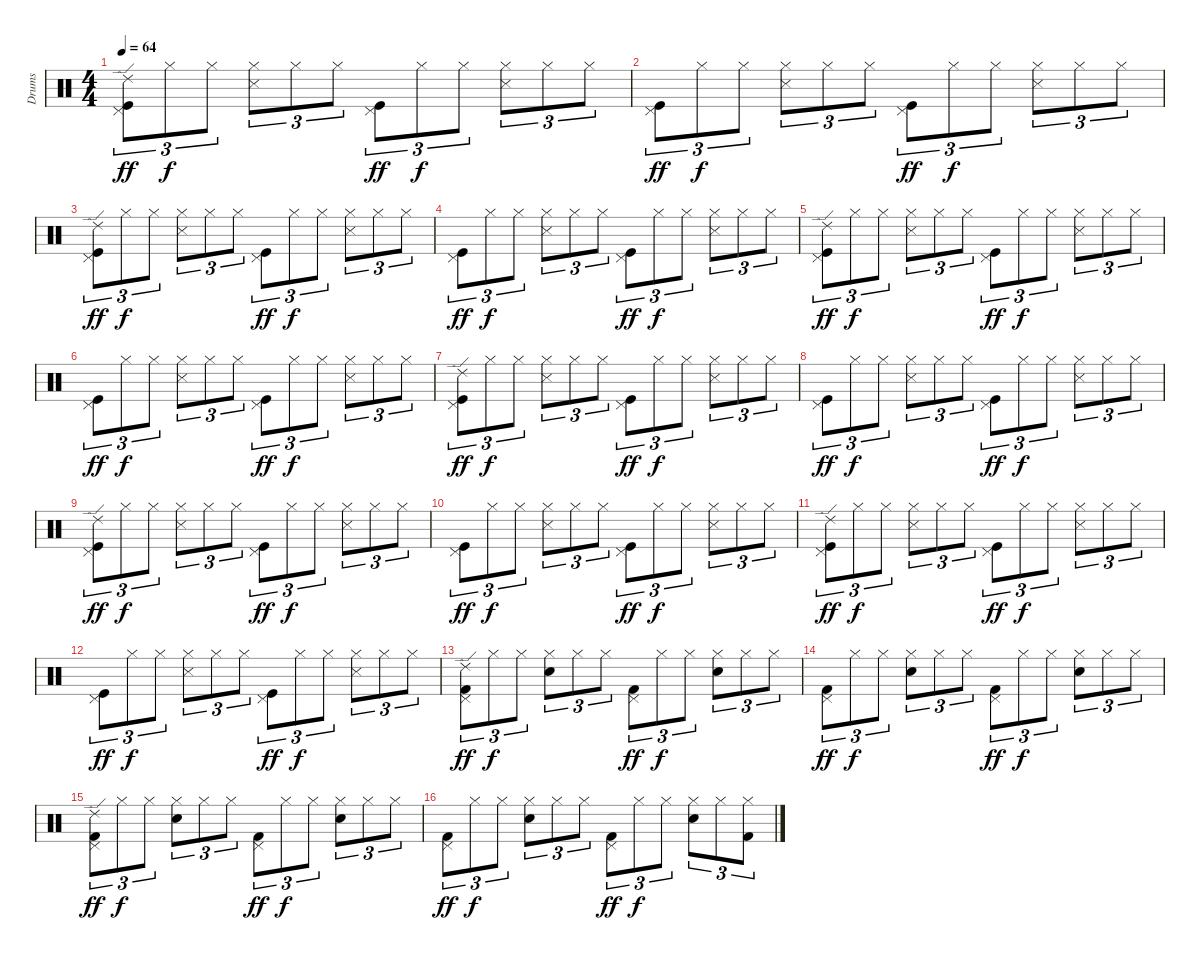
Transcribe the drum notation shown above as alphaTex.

\track ("Drums" "Drums") {instrument percussion}
\staff {score}
\articulation defaults
\ts (4 4)
\tempo 64
\clef neutral
\ks c
("Pedal Hi-Hat (hit)" "Ride (edge) 2" "Kick (hit)").8{tu (3 2) dy ff} "Hi-Hat (closed)".8{tu (3 2) dy f} "Hi-Hat (closed)".8{tu (3 2)} ("Hi-Hat (closed)" "Snare (side stick) 3").8{tu (3 2)} "Hi-Hat (closed)".8{tu (3 2)} "Hi-Hat (closed)".8{tu (3 2)} ("Pedal Hi-Hat (hit)" "Kick (hit)").8{tu (3 2) dy ff} "Hi-Hat (closed)".8{tu (3 2) dy f} "Hi-Hat (closed)".8{tu (3 2)} ("Hi-Hat (closed)" "Snare (side stick) 3").8{tu (3 2)} "Hi-Hat (closed)".8{tu (3 2)} "Hi-Hat (closed)".8{tu (3 2)} |
("Pedal Hi-Hat (hit)" "Kick (hit)").8{tu (3 2) dy ff} "Hi-Hat (closed)".8{tu (3 2) dy f} "Hi-Hat (closed)".8{tu (3 2)} ("Hi-Hat (closed)" "Snare (side stick) 3").8{tu (3 2)} "Hi-Hat (closed)".8{tu (3 2)} "Hi-Hat (closed)".8{tu (3 2)} ("Pedal Hi-Hat (hit)" "Kick (hit)").8{tu (3 2) dy ff} "Hi-Hat (closed)".8{tu (3 2) dy f} "Hi-Hat (closed)".8{tu (3 2)} ("Hi-Hat (closed)" "Snare (side stick) 3").8{tu (3 2)} "Hi-Hat (closed)".8{tu (3 2)} "Hi-Hat (closed)".8{tu (3 2)} |
("Pedal Hi-Hat (hit)" "Ride (edge) 2" "Kick (hit)").8{tu (3 2) dy ff} "Hi-Hat (closed)".8{tu (3 2) dy f} "Hi-Hat (closed)".8{tu (3 2)} ("Hi-Hat (closed)" "Snare (side stick) 3").8{tu (3 2)} "Hi-Hat (closed)".8{tu (3 2)} "Hi-Hat (closed)".8{tu (3 2)} ("Pedal Hi-Hat (hit)" "Kick (hit)").8{tu (3 2) dy ff} "Hi-Hat (closed)".8{tu (3 2) dy f} "Hi-Hat (closed)".8{tu (3 2)} ("Hi-Hat (closed)" "Snare (side stick) 3").8{tu (3 2)} "Hi-Hat (closed)".8{tu (3 2)} "Hi-Hat (closed)".8{tu (3 2)} |
("Pedal Hi-Hat (hit)" "Kick (hit)").8{tu (3 2) dy ff} "Hi-Hat (closed)".8{tu (3 2) dy f} "Hi-Hat (closed)".8{tu (3 2)} ("Hi-Hat (closed)" "Snare (side stick) 3").8{tu (3 2)} "Hi-Hat (closed)".8{tu (3 2)} "Hi-Hat (closed)".8{tu (3 2)} ("Pedal Hi-Hat (hit)" "Kick (hit)").8{tu (3 2) dy ff} "Hi-Hat (closed)".8{tu (3 2) dy f} "Hi-Hat (closed)".8{tu (3 2)} ("Hi-Hat (closed)" "Snare (side stick) 3").8{tu (3 2)} "Hi-Hat (closed)".8{tu (3 2)} "Hi-Hat (closed)".8{tu (3 2)} |
("Pedal Hi-Hat (hit)" "Ride (edge) 2" "Kick (hit)").8{tu (3 2) dy ff} "Hi-Hat (closed)".8{tu (3 2) dy f} "Hi-Hat (closed)".8{tu (3 2)} ("Hi-Hat (closed)" "Snare (side stick) 3").8{tu (3 2)} "Hi-Hat (closed)".8{tu (3 2)} "Hi-Hat (closed)".8{tu (3 2)} ("Pedal Hi-Hat (hit)" "Kick (hit)").8{tu (3 2) dy ff} "Hi-Hat (closed)".8{tu (3 2) dy f} "Hi-Hat (closed)".8{tu (3 2)} ("Hi-Hat (closed)" "Snare (side stick) 3").8{tu (3 2)} "Hi-Hat (closed)".8{tu (3 2)} "Hi-Hat (closed)".8{tu (3 2)} |
("Pedal Hi-Hat (hit)" "Kick (hit)").8{tu (3 2) dy ff} "Hi-Hat (closed)".8{tu (3 2) dy f} "Hi-Hat (closed)".8{tu (3 2)} ("Hi-Hat (closed)" "Snare (side stick) 3").8{tu (3 2)} "Hi-Hat (closed)".8{tu (3 2)} "Hi-Hat (closed)".8{tu (3 2)} ("Pedal Hi-Hat (hit)" "Kick (hit)").8{tu (3 2) dy ff} "Hi-Hat (closed)".8{tu (3 2) dy f} "Hi-Hat (closed)".8{tu (3 2)} ("Hi-Hat (closed)" "Snare (side stick) 3").8{tu (3 2)} "Hi-Hat (closed)".8{tu (3 2)} "Hi-Hat (closed)".8{tu (3 2)} |
("Pedal Hi-Hat (hit)" "Ride (edge) 2" "Kick (hit)").8{tu (3 2) dy ff} "Hi-Hat (closed)".8{tu (3 2) dy f} "Hi-Hat (closed)".8{tu (3 2)} ("Hi-Hat (closed)" "Snare (side stick) 3").8{tu (3 2)} "Hi-Hat (closed)".8{tu (3 2)} "Hi-Hat (closed)".8{tu (3 2)} ("Pedal Hi-Hat (hit)" "Kick (hit)").8{tu (3 2) dy ff} "Hi-Hat (closed)".8{tu (3 2) dy f} "Hi-Hat (closed)".8{tu (3 2)} ("Hi-Hat (closed)" "Snare (side stick) 3").8{tu (3 2)} "Hi-Hat (closed)".8{tu (3 2)} "Hi-Hat (closed)".8{tu (3 2)} |
("Pedal Hi-Hat (hit)" "Kick (hit)").8{tu (3 2) dy ff} "Hi-Hat (closed)".8{tu (3 2) dy f} "Hi-Hat (closed)".8{tu (3 2)} ("Hi-Hat (closed)" "Snare (side stick) 3").8{tu (3 2)} "Hi-Hat (closed)".8{tu (3 2)} "Hi-Hat (closed)".8{tu (3 2)} ("Pedal Hi-Hat (hit)" "Kick (hit)").8{tu (3 2) dy ff} "Hi-Hat (closed)".8{tu (3 2) dy f} "Hi-Hat (closed)".8{tu (3 2)} ("Hi-Hat (closed)" "Snare (side stick) 3").8{tu (3 2)} "Hi-Hat (closed)".8{tu (3 2)} "Hi-Hat (closed)".8{tu (3 2)} |
("Pedal Hi-Hat (hit)" "Ride (edge) 2" "Kick (hit)").8{tu (3 2) dy ff} "Hi-Hat (closed)".8{tu (3 2) dy f} "Hi-Hat (closed)".8{tu (3 2)} ("Hi-Hat (closed)" "Snare (side stick) 3").8{tu (3 2)} "Hi-Hat (closed)".8{tu (3 2)} "Hi-Hat (closed)".8{tu (3 2)} ("Pedal Hi-Hat (hit)" "Kick (hit)").8{tu (3 2) dy ff} "Hi-Hat (closed)".8{tu (3 2) dy f} "Hi-Hat (closed)".8{tu (3 2)} ("Hi-Hat (closed)" "Snare (side stick) 3").8{tu (3 2)} "Hi-Hat (closed)".8{tu (3 2)} "Hi-Hat (closed)".8{tu (3 2)} |
("Pedal Hi-Hat (hit)" "Kick (hit)").8{tu (3 2) dy ff} "Hi-Hat (closed)".8{tu (3 2) dy f} "Hi-Hat (closed)".8{tu (3 2)} ("Hi-Hat (closed)" "Snare (side stick) 3").8{tu (3 2)} "Hi-Hat (closed)".8{tu (3 2)} "Hi-Hat (closed)".8{tu (3 2)} ("Pedal Hi-Hat (hit)" "Kick (hit)").8{tu (3 2) dy ff} "Hi-Hat (closed)".8{tu (3 2) dy f} "Hi-Hat (closed)".8{tu (3 2)} ("Hi-Hat (closed)" "Snare (side stick) 3").8{tu (3 2)} "Hi-Hat (closed)".8{tu (3 2)} "Hi-Hat (closed)".8{tu (3 2)} |
("Pedal Hi-Hat (hit)" "Ride (edge) 2" "Kick (hit)").8{tu (3 2) dy ff} "Hi-Hat (closed)".8{tu (3 2) dy f} "Hi-Hat (closed)".8{tu (3 2)} ("Hi-Hat (closed)" "Snare (side stick) 3").8{tu (3 2)} "Hi-Hat (closed)".8{tu (3 2)} "Hi-Hat (closed)".8{tu (3 2)} ("Pedal Hi-Hat (hit)" "Kick (hit)").8{tu (3 2) dy ff} "Hi-Hat (closed)".8{tu (3 2) dy f} "Hi-Hat (closed)".8{tu (3 2)} ("Hi-Hat (closed)" "Snare (side stick) 3").8{tu (3 2)} "Hi-Hat (closed)".8{tu (3 2)} "Hi-Hat (closed)".8{tu (3 2)} |
("Pedal Hi-Hat (hit)" "Kick (hit)").8{tu (3 2) dy ff} "Hi-Hat (closed)".8{tu (3 2) dy f} "Hi-Hat (closed)".8{tu (3 2)} ("Hi-Hat (closed)" "Snare (side stick) 3").8{tu (3 2)} "Hi-Hat (closed)".8{tu (3 2)} "Hi-Hat (closed)".8{tu (3 2)} ("Pedal Hi-Hat (hit)" "Kick (hit)").8{tu (3 2) dy ff} "Hi-Hat (closed)".8{tu (3 2) dy f} "Hi-Hat (closed)".8{tu (3 2)} ("Hi-Hat (closed)" "Snare (side stick) 3").8{tu (3 2)} "Hi-Hat (closed)".8{tu (3 2)} "Hi-Hat (closed)".8{tu (3 2)} |
("Pedal Hi-Hat (hit)" "Ride (edge) 2" "Kick (hit) 2").8{tu (3 2) dy ff} "Hi-Hat (closed)".8{tu (3 2) dy f} "Hi-Hat (closed)".8{tu (3 2)} ("Hi-Hat (closed)" "Snare (hit) 2").8{tu (3 2)} "Hi-Hat (closed)".8{tu (3 2)} "Hi-Hat (closed)".8{tu (3 2)} ("Pedal Hi-Hat (hit)" "Kick (hit) 2").8{tu (3 2) dy ff} "Hi-Hat (closed)".8{tu (3 2) dy f} "Hi-Hat (closed)".8{tu (3 2)} ("Hi-Hat (closed)" "Snare (hit) 2").8{tu (3 2)} "Hi-Hat (closed)".8{tu (3 2)} "Hi-Hat (closed)".8{tu (3 2)} |
("Pedal Hi-Hat (hit)" "Kick (hit) 2").8{tu (3 2) dy ff} "Hi-Hat (closed)".8{tu (3 2) dy f} "Hi-Hat (closed)".8{tu (3 2)} ("Hi-Hat (closed)" "Snare (hit) 2").8{tu (3 2)} "Hi-Hat (closed)".8{tu (3 2)} "Hi-Hat (closed)".8{tu (3 2)} ("Pedal Hi-Hat (hit)" "Kick (hit) 2").8{tu (3 2) dy ff} "Hi-Hat (closed)".8{tu (3 2) dy f} "Hi-Hat (closed)".8{tu (3 2)} ("Hi-Hat (closed)" "Snare (hit) 2").8{tu (3 2)} "Hi-Hat (closed)".8{tu (3 2)} "Hi-Hat (closed)".8{tu (3 2)} |
("Pedal Hi-Hat (hit)" "Ride (edge) 2" "Kick (hit) 2").8{tu (3 2) dy ff} "Hi-Hat (closed)".8{tu (3 2) dy f} "Hi-Hat (closed)".8{tu (3 2)} ("Hi-Hat (closed)" "Snare (hit) 2").8{tu (3 2)} "Hi-Hat (closed)".8{tu (3 2)} "Hi-Hat (closed)".8{tu (3 2)} ("Pedal Hi-Hat (hit)" "Kick (hit) 2").8{tu (3 2) dy ff} "Hi-Hat (closed)".8{tu (3 2) dy f} "Hi-Hat (closed)".8{tu (3 2)} ("Hi-Hat (closed)" "Snare (hit) 2").8{tu (3 2)} "Hi-Hat (closed)".8{tu (3 2)} "Hi-Hat (closed)".8{tu (3 2)} |
("Pedal Hi-Hat (hit)" "Kick (hit) 2").8{tu (3 2) dy ff} "Hi-Hat (closed)".8{tu (3 2) dy f} "Hi-Hat (closed)".8{tu (3 2)} ("Hi-Hat (closed)" "Snare (hit) 2").8{tu (3 2)} "Hi-Hat (closed)".8{tu (3 2)} "Hi-Hat (closed)".8{tu (3 2)} ("Pedal Hi-Hat (hit)" "Kick (hit) 2").8{tu (3 2) dy ff} "Hi-Hat (closed)".8{tu (3 2) dy f} "Hi-Hat (closed)".8{tu (3 2)} ("Hi-Hat (closed)" "Snare (hit) 2").8{tu (3 2)} "Hi-Hat (closed)".8{tu (3 2)} ("Hi-Hat (closed)" "Kick (hit) 2").8{tu (3 2)}
